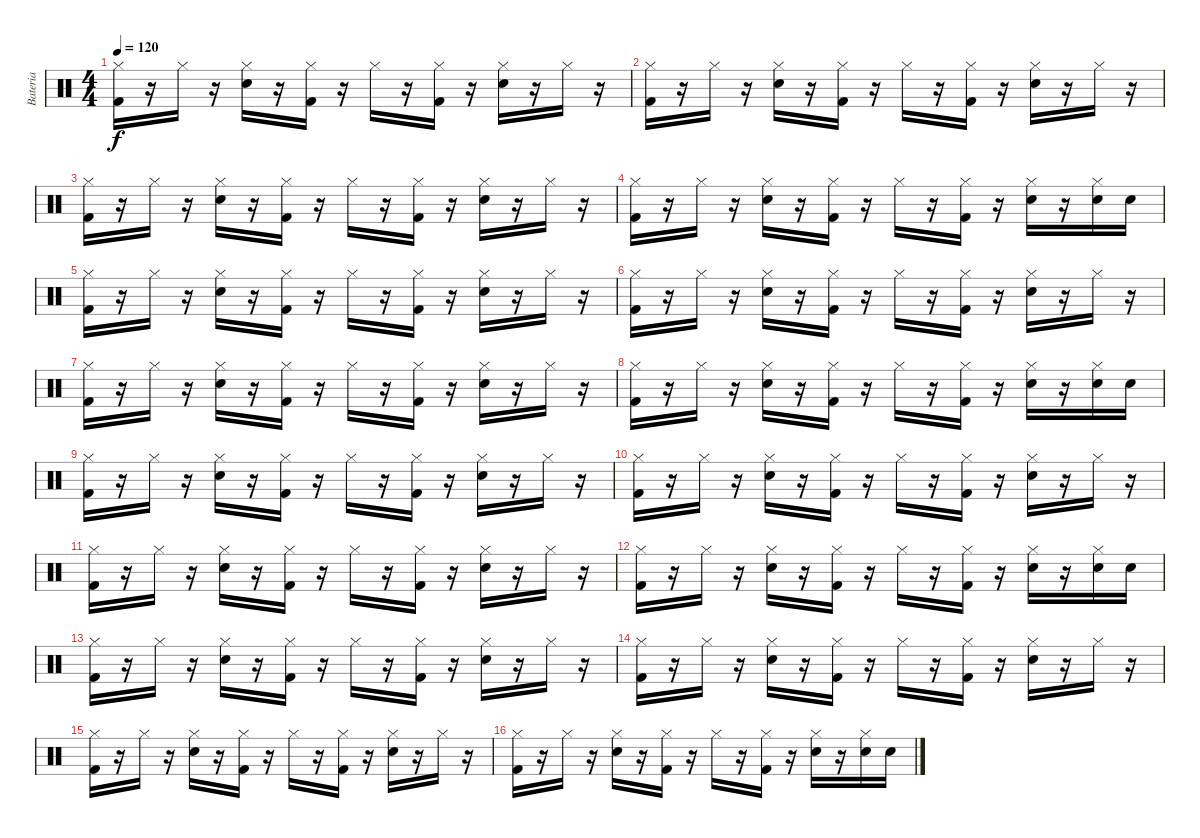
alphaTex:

\track ("Bateria" "Bateria") {instrument percussion}
\staff {score}
\articulation defaults
\ts (4 4)
\tempo 120
\clef neutral
\ks c
("Hi-Hat (closed)" "Kick (hit) 2").16{dy f} r.16 "Hi-Hat (closed)".16 r.16 ("Hi-Hat (closed)" "Snare (hit) 2").16 r.16 ("Hi-Hat (closed)" "Kick (hit) 2").16 r.16 "Hi-Hat (closed)".16 r.16 ("Hi-Hat (closed)" "Kick (hit) 2").16 r.16 ("Hi-Hat (closed)" "Snare (hit) 2").16 r.16 "Hi-Hat (closed)".16 r.16 |
("Hi-Hat (closed)" "Kick (hit) 2").16 r.16 "Hi-Hat (closed)".16 r.16 ("Hi-Hat (closed)" "Snare (hit) 2").16 r.16 ("Hi-Hat (closed)" "Kick (hit) 2").16 r.16 "Hi-Hat (closed)".16 r.16 ("Hi-Hat (closed)" "Kick (hit) 2").16 r.16 ("Hi-Hat (closed)" "Snare (hit) 2").16 r.16 "Hi-Hat (closed)".16 r.16 |
("Hi-Hat (closed)" "Kick (hit) 2").16 r.16 "Hi-Hat (closed)".16 r.16 ("Hi-Hat (closed)" "Snare (hit) 2").16 r.16 ("Hi-Hat (closed)" "Kick (hit) 2").16 r.16 "Hi-Hat (closed)".16 r.16 ("Hi-Hat (closed)" "Kick (hit) 2").16 r.16 ("Hi-Hat (closed)" "Snare (hit) 2").16 r.16 "Hi-Hat (closed)".16 r.16 |
("Hi-Hat (closed)" "Kick (hit) 2").16 r.16 "Hi-Hat (closed)".16 r.16 ("Hi-Hat (closed)" "Snare (hit) 2").16 r.16 ("Hi-Hat (closed)" "Kick (hit) 2").16 r.16 "Hi-Hat (closed)".16 r.16 ("Hi-Hat (closed)" "Kick (hit) 2").16 r.16 ("Hi-Hat (closed)" "Snare (hit) 2").16 r.16 ("Hi-Hat (closed)" "Snare (hit) 2").16 "Snare (hit) 2".16 |
("Hi-Hat (closed)" "Kick (hit) 2").16 r.16 "Hi-Hat (closed)".16 r.16 ("Hi-Hat (closed)" "Snare (hit) 2").16 r.16 ("Hi-Hat (closed)" "Kick (hit) 2").16 r.16 "Hi-Hat (closed)".16 r.16 ("Hi-Hat (closed)" "Kick (hit) 2").16 r.16 ("Hi-Hat (closed)" "Snare (hit) 2").16 r.16 "Hi-Hat (closed)".16 r.16 |
("Hi-Hat (closed)" "Kick (hit) 2").16 r.16 "Hi-Hat (closed)".16 r.16 ("Hi-Hat (closed)" "Snare (hit) 2").16 r.16 ("Hi-Hat (closed)" "Kick (hit) 2").16 r.16 "Hi-Hat (closed)".16 r.16 ("Hi-Hat (closed)" "Kick (hit) 2").16 r.16 ("Hi-Hat (closed)" "Snare (hit) 2").16 r.16 "Hi-Hat (closed)".16 r.16 |
("Hi-Hat (closed)" "Kick (hit) 2").16 r.16 "Hi-Hat (closed)".16 r.16 ("Hi-Hat (closed)" "Snare (hit) 2").16 r.16 ("Hi-Hat (closed)" "Kick (hit) 2").16 r.16 "Hi-Hat (closed)".16 r.16 ("Hi-Hat (closed)" "Kick (hit) 2").16 r.16 ("Hi-Hat (closed)" "Snare (hit) 2").16 r.16 "Hi-Hat (closed)".16 r.16 |
("Hi-Hat (closed)" "Kick (hit) 2").16 r.16 "Hi-Hat (closed)".16 r.16 ("Hi-Hat (closed)" "Snare (hit) 2").16 r.16 ("Hi-Hat (closed)" "Kick (hit) 2").16 r.16 "Hi-Hat (closed)".16 r.16 ("Hi-Hat (closed)" "Kick (hit) 2").16 r.16 ("Hi-Hat (closed)" "Snare (hit) 2").16 r.16 ("Hi-Hat (closed)" "Snare (hit) 2").16 "Snare (hit) 2".16 |
("Hi-Hat (closed)" "Kick (hit) 2").16 r.16 "Hi-Hat (closed)".16 r.16 ("Hi-Hat (closed)" "Snare (hit) 2").16 r.16 ("Hi-Hat (closed)" "Kick (hit) 2").16 r.16 "Hi-Hat (closed)".16 r.16 ("Hi-Hat (closed)" "Kick (hit) 2").16 r.16 ("Hi-Hat (closed)" "Snare (hit) 2").16 r.16 "Hi-Hat (closed)".16 r.16 |
("Hi-Hat (closed)" "Kick (hit) 2").16 r.16 "Hi-Hat (closed)".16 r.16 ("Hi-Hat (closed)" "Snare (hit) 2").16 r.16 ("Hi-Hat (closed)" "Kick (hit) 2").16 r.16 "Hi-Hat (closed)".16 r.16 ("Hi-Hat (closed)" "Kick (hit) 2").16 r.16 ("Hi-Hat (closed)" "Snare (hit) 2").16 r.16 "Hi-Hat (closed)".16 r.16 |
("Hi-Hat (closed)" "Kick (hit) 2").16 r.16 "Hi-Hat (closed)".16 r.16 ("Hi-Hat (closed)" "Snare (hit) 2").16 r.16 ("Hi-Hat (closed)" "Kick (hit) 2").16 r.16 "Hi-Hat (closed)".16 r.16 ("Hi-Hat (closed)" "Kick (hit) 2").16 r.16 ("Hi-Hat (closed)" "Snare (hit) 2").16 r.16 "Hi-Hat (closed)".16 r.16 |
("Hi-Hat (closed)" "Kick (hit) 2").16 r.16 "Hi-Hat (closed)".16 r.16 ("Hi-Hat (closed)" "Snare (hit) 2").16 r.16 ("Hi-Hat (closed)" "Kick (hit) 2").16 r.16 "Hi-Hat (closed)".16 r.16 ("Hi-Hat (closed)" "Kick (hit) 2").16 r.16 ("Hi-Hat (closed)" "Snare (hit) 2").16 r.16 ("Hi-Hat (closed)" "Snare (hit) 2").16 "Snare (hit) 2".16 |
("Hi-Hat (closed)" "Kick (hit) 2").16 r.16 "Hi-Hat (closed)".16 r.16 ("Hi-Hat (closed)" "Snare (hit) 2").16 r.16 ("Hi-Hat (closed)" "Kick (hit) 2").16 r.16 "Hi-Hat (closed)".16 r.16 ("Hi-Hat (closed)" "Kick (hit) 2").16 r.16 ("Hi-Hat (closed)" "Snare (hit) 2").16 r.16 "Hi-Hat (closed)".16 r.16 |
("Hi-Hat (closed)" "Kick (hit) 2").16 r.16 "Hi-Hat (closed)".16 r.16 ("Hi-Hat (closed)" "Snare (hit) 2").16 r.16 ("Hi-Hat (closed)" "Kick (hit) 2").16 r.16 "Hi-Hat (closed)".16 r.16 ("Hi-Hat (closed)" "Kick (hit) 2").16 r.16 ("Hi-Hat (closed)" "Snare (hit) 2").16 r.16 "Hi-Hat (closed)".16 r.16 |
("Hi-Hat (closed)" "Kick (hit) 2").16 r.16 "Hi-Hat (closed)".16 r.16 ("Hi-Hat (closed)" "Snare (hit) 2").16 r.16 ("Hi-Hat (closed)" "Kick (hit) 2").16 r.16 "Hi-Hat (closed)".16 r.16 ("Hi-Hat (closed)" "Kick (hit) 2").16 r.16 ("Hi-Hat (closed)" "Snare (hit) 2").16 r.16 "Hi-Hat (closed)".16 r.16 |
("Hi-Hat (closed)" "Kick (hit) 2").16 r.16 "Hi-Hat (closed)".16 r.16 ("Hi-Hat (closed)" "Snare (hit) 2").16 r.16 ("Hi-Hat (closed)" "Kick (hit) 2").16 r.16 "Hi-Hat (closed)".16 r.16 ("Hi-Hat (closed)" "Kick (hit) 2").16 r.16 ("Hi-Hat (closed)" "Snare (hit) 2").16 r.16 ("Hi-Hat (closed)" "Snare (hit) 2").16 "Snare (hit) 2".16
